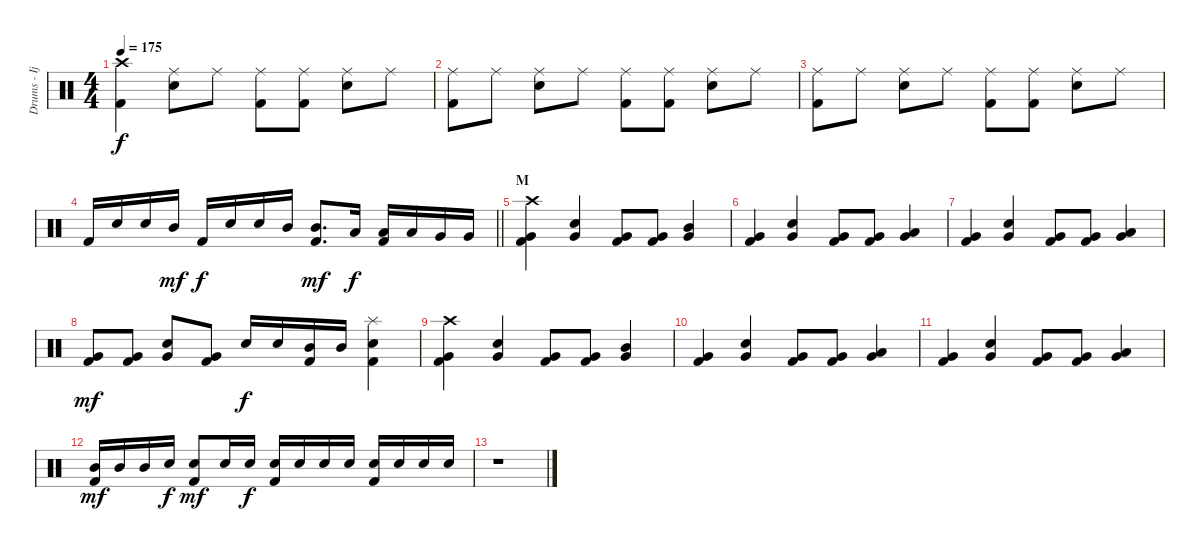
\track ("Drums - Ijichi" "Drums - Ij") {instrument percussion}
\staff {score}
\articulation defaults
\ts (4 4)
\tempo 175
\clef neutral
\ks c
("Crash high (hit)" "Kick (hit) 2").4{dy f} ("Ride (middle)" "Snare (hit) 2").8 "Ride (middle)".8 ("Ride (middle)" "Kick (hit) 2").8 ("Ride (middle)" "Kick (hit) 2").8 ("Ride (middle)" "Snare (hit) 2").8 "Ride (middle)".8 |
("Ride (middle)" "Kick (hit) 2").8 "Ride (middle)".8 ("Ride (middle)" "Snare (hit) 2").8 "Ride (middle)".8 ("Ride (middle)" "Kick (hit) 2").8 ("Ride (middle)" "Kick (hit) 2").8 ("Ride (middle)" "Snare (hit) 2").8 "Ride (middle)".8 |
("Ride (middle)" "Kick (hit) 2").8 "Ride (middle)".8 ("Ride (middle)" "Snare (hit) 2").8 "Ride (middle)".8 ("Ride (middle)" "Kick (hit) 2").8 ("Ride (middle)" "Kick (hit) 2").8 ("Ride (middle)" "Snare (hit) 2").8 "Ride (middle)".8 |
\barLineRight lightlight "Kick (hit) 2".16 "Snare (hit) 2".16 "Snare (hit) 2".16 "Mid Tom (hit)".16{dy mf} "Kick (hit) 2".16{dy f} "Snare (hit) 2".16 "Snare (hit) 2".16 "Mid Tom (hit)".16
("Mid Tom (hit)" "Kick (hit) 2").8{d dy mf} "Low Tom (hit)".16{dy f} ("Low Tom (hit)" "Kick (hit) 2").16 "Low Tom (hit)".16 "Very Low Tom (hit)".16 "Very Low Tom (hit)".16 |
\section ("" "M")
("Crash high (hit)" "Very Low Tom (hit)" "Kick (hit) 2").4 ("Snare (hit) 2" "Very Low Tom (hit)").4 ("Very Low Tom (hit)" "Kick (hit) 2").8 ("Very Low Tom (hit)" "Kick (hit) 2").8 ("Mid Tom (hit)" "Very Low Tom (hit)").4 |
("Very Low Tom (hit)" "Kick (hit) 2").4 ("Snare (hit) 2" "Very Low Tom (hit)").4 ("Very Low Tom (hit)" "Kick (hit) 2").8 ("Very Low Tom (hit)" "Kick (hit) 2").8 ("Low Tom (hit)" "Very Low Tom (hit)").4 |
("Very Low Tom (hit)" "Kick (hit) 2").4 ("Snare (hit) 2" "Very Low Tom (hit)").4 ("Very Low Tom (hit)" "Kick (hit) 2").8 ("Very Low Tom (hit)" "Kick (hit) 2").8 ("Low Tom (hit)" "Very Low Tom (hit)").4 |
("Very Low Tom (hit)" "Kick (hit) 2").8{dy mf} ("Very Low Tom (hit)" "Kick (hit) 2").8 ("Snare (hit) 2" "Very Low Tom (hit)").8 ("Very Low Tom (hit)" "Kick (hit) 2").8 "Snare (hit) 2".16{dy f} "Snare (hit) 2".16 ("Mid Tom (hit)" "Kick (hit) 2").16 "Mid Tom (hit)".16 ("Splash (hit)" "Snare (hit) 2" "Kick (hit) 2").4 |
("Crash high (hit)" "Very Low Tom (hit)" "Kick (hit) 2").4 ("Snare (hit) 2" "Very Low Tom (hit)").4 ("Very Low Tom (hit)" "Kick (hit) 2").8 ("Very Low Tom (hit)" "Kick (hit) 2").8 ("Mid Tom (hit)" "Very Low Tom (hit)").4 |
("Very Low Tom (hit)" "Kick (hit) 2").4 ("Snare (hit) 2" "Very Low Tom (hit)").4 ("Very Low Tom (hit)" "Kick (hit) 2").8 ("Very Low Tom (hit)" "Kick (hit) 2").8 ("Low Tom (hit)" "Very Low Tom (hit)").4 |
("Very Low Tom (hit)" "Kick (hit) 2").4 ("Snare (hit) 2" "Very Low Tom (hit)").4 ("Very Low Tom (hit)" "Kick (hit) 2").8 ("Very Low Tom (hit)" "Kick (hit) 2").8 ("Low Tom (hit)" "Very Low Tom (hit)").4 |
("Mid Tom (hit)" "Kick (hit) 2").16{dy mf} "Mid Tom (hit)".16 "Mid Tom (hit)".16 "Snare (hit) 2".16{dy f} ("Snare (hit) 2" "Kick (hit) 2").8{dy mf volume 10} "Snare (hit) 2".16{volume 14} "Snare (hit) 2".16{dy f} ("Snare (hit) 2" "Kick (hit) 2").16 "Snare (hit) 2".16 "Snare (hit) 2".16 "Snare (hit) 2".16 ("Snare (hit) 2" "Kick (hit) 2").16 "Snare (hit) 2".16 "Snare (hit) 2".16 "Snare (hit) 2".16 |
r.1
